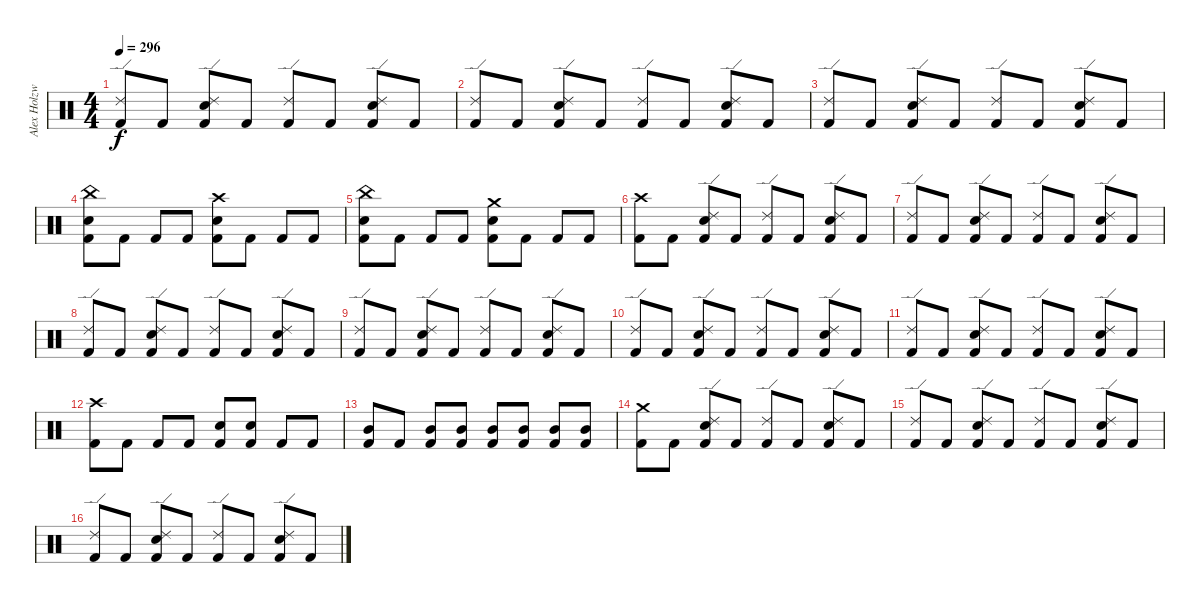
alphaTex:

\track ("Alex Holzwarth" "Alex Holzw") {instrument percussion}
\staff {score}
\articulation defaults
\ts (4 4)
\tempo 296
\clef neutral
\ks c
("Ride (edge) 2" "Kick (hit) 2").8{dy f} "Kick (hit) 2".8 ("Ride (edge) 2" "Snare (hit) 2" "Kick (hit) 2").8 "Kick (hit) 2".8 ("Ride (edge) 2" "Kick (hit) 2").8 "Kick (hit) 2".8 ("Ride (edge) 2" "Snare (hit) 2" "Kick (hit) 2").8 "Kick (hit) 2".8 |
("Ride (edge) 2" "Kick (hit) 2").8 "Kick (hit) 2".8 ("Ride (edge) 2" "Snare (hit) 2" "Kick (hit) 2").8 "Kick (hit) 2".8 ("Ride (edge) 2" "Kick (hit) 2").8 "Kick (hit) 2".8 ("Ride (edge) 2" "Snare (hit) 2" "Kick (hit) 2").8 "Kick (hit) 2".8 |
("Ride (edge) 2" "Kick (hit) 2").8 "Kick (hit) 2".8 ("Ride (edge) 2" "Snare (hit) 2" "Kick (hit) 2").8 "Kick (hit) 2".8 ("Ride (edge) 2" "Kick (hit) 2").8 "Kick (hit) 2".8 ("Ride (edge) 2" "Snare (hit) 2" "Kick (hit) 2").8 "Kick (hit) 2".8 |
("China (hit)" "Snare (hit) 2" "Kick (hit) 2").8 "Kick (hit) 2".8 "Kick (hit) 2".8 "Kick (hit) 2".8 ("Crash high (hit)" "Snare (hit) 2" "Kick (hit) 2").8 "Kick (hit) 2".8 "Kick (hit) 2".8 "Kick (hit) 2".8 |
("China (hit)" "Snare (hit) 2" "Kick (hit) 2").8 "Kick (hit) 2".8 "Kick (hit) 2".8 "Kick (hit) 2".8 ("Crash medium (hit)" "Snare (hit) 2" "Kick (hit) 2").8 "Kick (hit) 2".8 "Kick (hit) 2".8 "Kick (hit) 2".8 |
("Crash high (hit)" "Kick (hit) 2").8 "Kick (hit) 2".8 ("Ride (edge) 2" "Snare (hit) 2" "Kick (hit) 2").8 "Kick (hit) 2".8 ("Ride (edge) 2" "Kick (hit) 2").8 "Kick (hit) 2".8 ("Ride (edge) 2" "Snare (hit) 2" "Kick (hit) 2").8 "Kick (hit) 2".8 |
("Ride (edge) 2" "Kick (hit) 2").8 "Kick (hit) 2".8 ("Ride (edge) 2" "Snare (hit) 2" "Kick (hit) 2").8 "Kick (hit) 2".8 ("Ride (edge) 2" "Kick (hit) 2").8 "Kick (hit) 2".8 ("Ride (edge) 2" "Snare (hit) 2" "Kick (hit) 2").8 "Kick (hit) 2".8 |
("Ride (edge) 2" "Kick (hit) 2").8 "Kick (hit) 2".8 ("Ride (edge) 2" "Snare (hit) 2" "Kick (hit) 2").8 "Kick (hit) 2".8 ("Ride (edge) 2" "Kick (hit) 2").8 "Kick (hit) 2".8 ("Ride (edge) 2" "Snare (hit) 2" "Kick (hit) 2").8 "Kick (hit) 2".8 |
("Ride (edge) 2" "Kick (hit) 2").8 "Kick (hit) 2".8 ("Ride (edge) 2" "Snare (hit) 2" "Kick (hit) 2").8 "Kick (hit) 2".8 ("Ride (edge) 2" "Kick (hit) 2").8 "Kick (hit) 2".8 ("Ride (edge) 2" "Snare (hit) 2" "Kick (hit) 2").8 "Kick (hit) 2".8 |
("Ride (edge) 2" "Kick (hit) 2").8 "Kick (hit) 2".8 ("Ride (edge) 2" "Snare (hit) 2" "Kick (hit) 2").8 "Kick (hit) 2".8 ("Ride (edge) 2" "Kick (hit) 2").8 "Kick (hit) 2".8 ("Ride (edge) 2" "Snare (hit) 2" "Kick (hit) 2").8 "Kick (hit) 2".8 |
("Ride (edge) 2" "Kick (hit) 2").8 "Kick (hit) 2".8 ("Ride (edge) 2" "Snare (hit) 2" "Kick (hit) 2").8 "Kick (hit) 2".8 ("Ride (edge) 2" "Kick (hit) 2").8 "Kick (hit) 2".8 ("Ride (edge) 2" "Snare (hit) 2" "Kick (hit) 2").8 "Kick (hit) 2".8 |
("Crash high (hit)" "Kick (hit) 2").8 "Kick (hit) 2".8 "Kick (hit) 2".8 "Kick (hit) 2".8 ("Snare (hit) 2" "Kick (hit) 2").8 ("Snare (hit) 2" "Kick (hit) 2").8 "Kick (hit) 2".8 "Kick (hit) 2".8 |
("Mid Tom (hit)" "Kick (hit) 2").8 "Kick (hit) 2".8 ("Mid Tom (hit)" "Kick (hit) 2").8 ("Mid Tom (hit)" "Kick (hit) 2").8 ("Mid Tom (hit)" "Kick (hit) 2").8 ("Mid Tom (hit)" "Kick (hit) 2").8 ("Mid Tom (hit)" "Kick (hit) 2").8 ("Mid Tom (hit)" "Kick (hit) 2").8 |
("Crash medium (hit)" "Kick (hit) 2").8 "Kick (hit) 2".8 ("Ride (edge) 2" "Snare (hit) 2" "Kick (hit) 2").8 "Kick (hit) 2".8 ("Ride (edge) 2" "Kick (hit) 2").8 "Kick (hit) 2".8 ("Ride (edge) 2" "Snare (hit) 2" "Kick (hit) 2").8 "Kick (hit) 2".8 |
("Ride (edge) 2" "Kick (hit) 2").8 "Kick (hit) 2".8 ("Ride (edge) 2" "Snare (hit) 2" "Kick (hit) 2").8 "Kick (hit) 2".8 ("Ride (edge) 2" "Kick (hit) 2").8 "Kick (hit) 2".8 ("Ride (edge) 2" "Snare (hit) 2" "Kick (hit) 2").8 "Kick (hit) 2".8 |
("Ride (edge) 2" "Kick (hit) 2").8 "Kick (hit) 2".8 ("Ride (edge) 2" "Snare (hit) 2" "Kick (hit) 2").8 "Kick (hit) 2".8 ("Ride (edge) 2" "Kick (hit) 2").8 "Kick (hit) 2".8 ("Ride (edge) 2" "Snare (hit) 2" "Kick (hit) 2").8 "Kick (hit) 2".8
